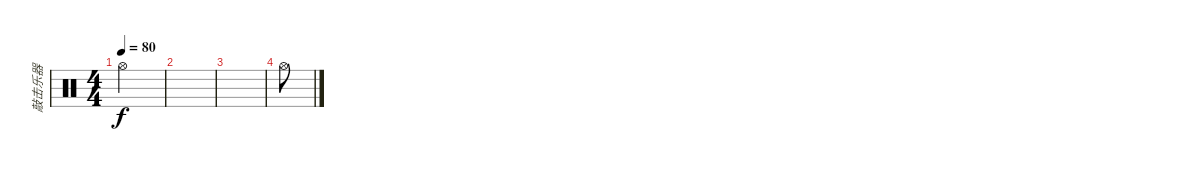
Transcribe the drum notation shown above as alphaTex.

\track ("敲击乐器" "敲击乐器") {instrument percussion}
\staff {score}
\articulation defaults
\ts (4 4)
\tempo 80
\clef neutral
\ks c "Hi-Hat (open)".2{dy f}
|
|
|
"Hi-Hat (open)".8
